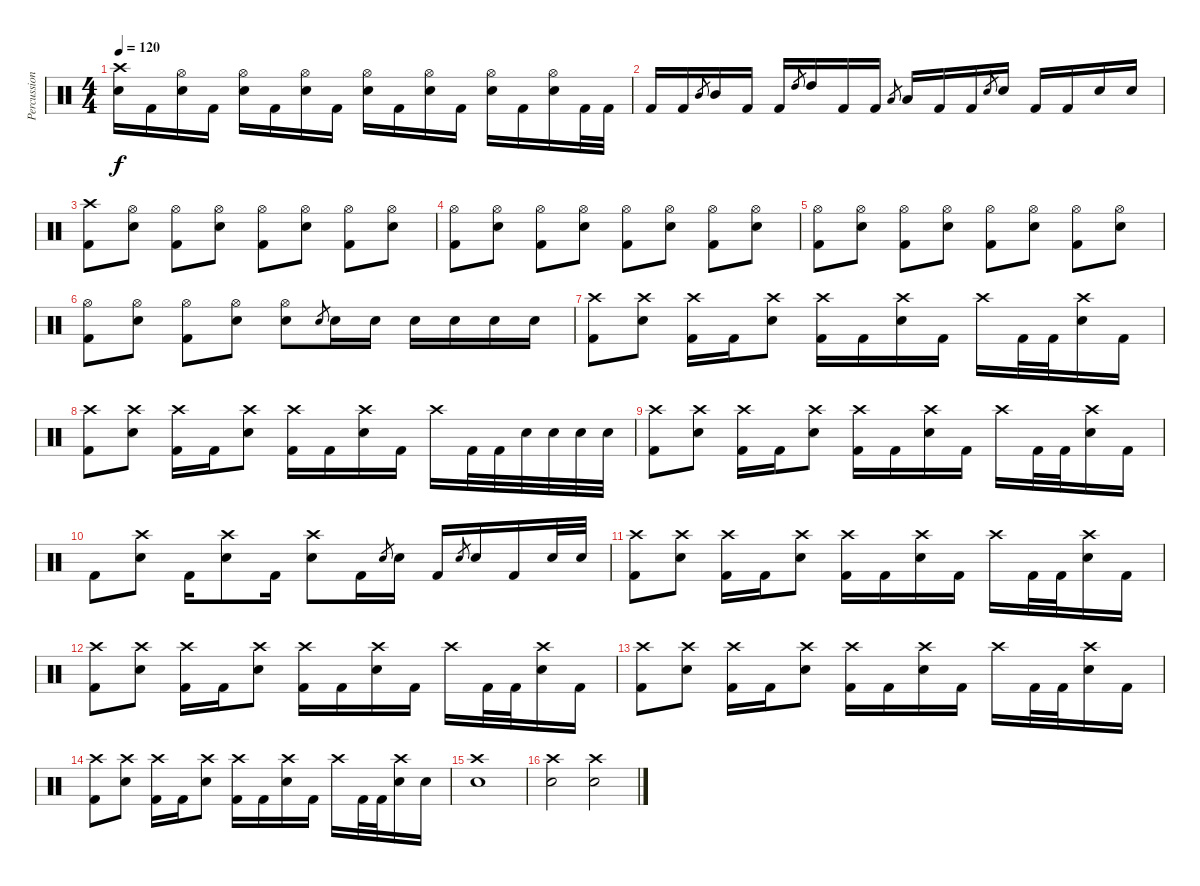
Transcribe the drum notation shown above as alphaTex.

\track ("Percussions" "Percussion") {instrument percussion}
\staff {score}
\articulation defaults
\ts (4 4)
\tempo 120
\clef neutral
\ks c
("Crash high (hit)" "Snare (hit) 2").16{dy f} "Kick (hit) 2".16 ("Hi-Hat (open)" "Snare (hit) 2").16 "Kick (hit) 2".16 ("Hi-Hat (open)" "Snare (hit) 2").16 "Kick (hit) 2".16 ("Hi-Hat (open)" "Snare (hit) 2").16 "Kick (hit) 2".16 ("Hi-Hat (open)" "Snare (hit) 2").16 "Kick (hit) 2".16 ("Hi-Hat (open)" "Snare (hit) 2").16 "Kick (hit) 2".16 ("Hi-Hat (open)" "Snare (hit) 2").16 "Kick (hit) 2".16 ("Hi-Hat (open)" "Snare (hit) 2").16 "Kick (hit) 2".32 "Kick (hit) 2".32 |
"Kick (hit) 2".16 "Kick (hit) 2".16 "Mid Tom (hit)".8{gr} "Mid Tom (hit)".16 "Kick (hit) 2".16 "Kick (hit) 2".16 "High Tom (hit)".8{gr} "High Tom (hit)".16 "Kick (hit) 2".16 "Kick (hit) 2".16 "Low Tom (hit)".8{gr} "Low Tom (hit)".16 "Kick (hit) 2".16 "Kick (hit) 2".16 "Snare (hit) 2".8{gr} "Snare (hit) 2".16 "Kick (hit) 2".16 "Kick (hit) 2".16 "Snare (hit) 2".16 "Snare (hit) 2".16 |
("Crash high (hit)" "Kick (hit) 2").8 ("Hi-Hat (open)" "Snare (hit) 2").8 ("Hi-Hat (open)" "Kick (hit) 2").8 ("Hi-Hat (open)" "Snare (hit) 2").8 ("Hi-Hat (open)" "Kick (hit) 2").8 ("Hi-Hat (open)" "Snare (hit) 2").8 ("Hi-Hat (open)" "Kick (hit) 2").8 ("Hi-Hat (open)" "Snare (hit) 2").8 |
("Hi-Hat (open)" "Kick (hit) 2").8 ("Hi-Hat (open)" "Snare (hit) 2").8 ("Hi-Hat (open)" "Kick (hit) 2").8 ("Hi-Hat (open)" "Snare (hit) 2").8 ("Hi-Hat (open)" "Kick (hit) 2").8 ("Hi-Hat (open)" "Snare (hit) 2").8 ("Hi-Hat (open)" "Kick (hit) 2").8 ("Hi-Hat (open)" "Snare (hit) 2").8 |
("Hi-Hat (open)" "Kick (hit) 2").8 ("Hi-Hat (open)" "Snare (hit) 2").8 ("Hi-Hat (open)" "Kick (hit) 2").8 ("Hi-Hat (open)" "Snare (hit) 2").8 ("Hi-Hat (open)" "Kick (hit) 2").8 ("Hi-Hat (open)" "Snare (hit) 2").8 ("Hi-Hat (open)" "Kick (hit) 2").8 ("Hi-Hat (open)" "Snare (hit) 2").8 |
("Hi-Hat (open)" "Kick (hit) 2").8 ("Hi-Hat (open)" "Snare (hit) 2").8 ("Hi-Hat (open)" "Kick (hit) 2").8 ("Hi-Hat (open)" "Snare (hit) 2").8 ("Hi-Hat (open)" "Snare (hit) 2").8 "Snare (hit) 2".8{gr} "Snare (hit) 2".16 "Snare (hit) 2".16 "Snare (hit) 2".16 "Snare (hit) 2".16 "Snare (hit) 2".16 "Snare (hit) 2".16 |
("Crash high (hit)" "Kick (hit) 2").8 ("Crash high (hit)" "Snare (hit) 2").8 ("Crash high (hit)" "Kick (hit) 2").16 "Kick (hit) 2".16 ("Crash high (hit)" "Snare (hit) 2").8 ("Crash high (hit)" "Kick (hit) 2").16 "Kick (hit) 2".16 ("Crash high (hit)" "Snare (hit) 2").16 "Kick (hit) 2".16 "Crash high (hit)".16 "Kick (hit) 2".32 "Kick (hit) 2".32 ("Crash high (hit)" "Snare (hit) 2").16 "Kick (hit) 2".16 |
("Crash high (hit)" "Kick (hit) 2").8 ("Crash high (hit)" "Snare (hit) 2").8 ("Crash high (hit)" "Kick (hit) 2").16 "Kick (hit) 2".16 ("Crash high (hit)" "Snare (hit) 2").8 ("Crash high (hit)" "Kick (hit) 2").16 "Kick (hit) 2".16 ("Crash high (hit)" "Snare (hit) 2").16 "Kick (hit) 2".16 "Crash high (hit)".16 "Kick (hit) 2".32 "Kick (hit) 2".32 "Snare (hit) 2".32 "Snare (hit) 2".32 "Snare (hit) 2".32 "Snare (hit) 2".32 |
("Crash high (hit)" "Kick (hit) 2").8 ("Crash high (hit)" "Snare (hit) 2").8 ("Crash high (hit)" "Kick (hit) 2").16 "Kick (hit) 2".16 ("Crash high (hit)" "Snare (hit) 2").8 ("Crash high (hit)" "Kick (hit) 2").16 "Kick (hit) 2".16 ("Crash high (hit)" "Snare (hit) 2").16 "Kick (hit) 2".16 "Crash high (hit)".16 "Kick (hit) 2".32 "Kick (hit) 2".32 ("Crash high (hit)" "Snare (hit) 2").16 "Kick (hit) 2".16 |
"Kick (hit) 2".8 ("Crash high (hit)" "Snare (hit) 2").8 "Kick (hit) 2".16 ("Crash high (hit)" "Snare (hit) 2").8 "Kick (hit) 2".16 ("Crash high (hit)" "Snare (hit) 2").8 "Kick (hit) 2".16 "Snare (hit) 2".8{gr} "Snare (hit) 2".16 "Kick (hit) 2".16 "Snare (hit) 2".8{gr} "Snare (hit) 2".16 "Kick (hit) 2".16 "Snare (hit) 2".32 "Snare (hit) 2".32 |
("Crash high (hit)" "Kick (hit) 2").8 ("Crash high (hit)" "Snare (hit) 2").8 ("Crash high (hit)" "Kick (hit) 2").16 "Kick (hit) 2".16 ("Crash high (hit)" "Snare (hit) 2").8 ("Crash high (hit)" "Kick (hit) 2").16 "Kick (hit) 2".16 ("Crash high (hit)" "Snare (hit) 2").16 "Kick (hit) 2".16 "Crash high (hit)".16 "Kick (hit) 2".32 "Kick (hit) 2".32 ("Crash high (hit)" "Snare (hit) 2").16 "Kick (hit) 2".16 |
("Crash high (hit)" "Kick (hit) 2").8 ("Crash high (hit)" "Snare (hit) 2").8 ("Crash high (hit)" "Kick (hit) 2").16 "Kick (hit) 2".16 ("Crash high (hit)" "Snare (hit) 2").8 ("Crash high (hit)" "Kick (hit) 2").16 "Kick (hit) 2".16 ("Crash high (hit)" "Snare (hit) 2").16 "Kick (hit) 2".16 "Crash high (hit)".16 "Kick (hit) 2".32 "Kick (hit) 2".32 ("Crash high (hit)" "Snare (hit) 2").16 "Kick (hit) 2".16 |
("Crash high (hit)" "Kick (hit) 2").8 ("Crash high (hit)" "Snare (hit) 2").8 ("Crash high (hit)" "Kick (hit) 2").16 "Kick (hit) 2".16 ("Crash high (hit)" "Snare (hit) 2").8 ("Crash high (hit)" "Kick (hit) 2").16 "Kick (hit) 2".16 ("Crash high (hit)" "Snare (hit) 2").16 "Kick (hit) 2".16 "Crash high (hit)".16 "Kick (hit) 2".32 "Kick (hit) 2".32 ("Crash high (hit)" "Snare (hit) 2").16 "Kick (hit) 2".16 |
("Crash high (hit)" "Kick (hit) 2").8 ("Crash high (hit)" "Snare (hit) 2").8 ("Crash high (hit)" "Kick (hit) 2").16 "Kick (hit) 2".16 ("Crash high (hit)" "Snare (hit) 2").8 ("Crash high (hit)" "Kick (hit) 2").16 "Kick (hit) 2".16 ("Crash high (hit)" "Snare (hit) 2").16 "Kick (hit) 2".16 "Crash high (hit)".16 "Kick (hit) 2".32 "Kick (hit) 2".32 ("Crash high (hit)" "Snare (hit) 2").16 "Snare (hit) 2".16 |
("Crash high (hit)" "Snare (hit) 2").1 |
("Crash high (hit)" "Snare (hit) 2").2 ("Crash high (hit)" "Snare (hit) 2").2
